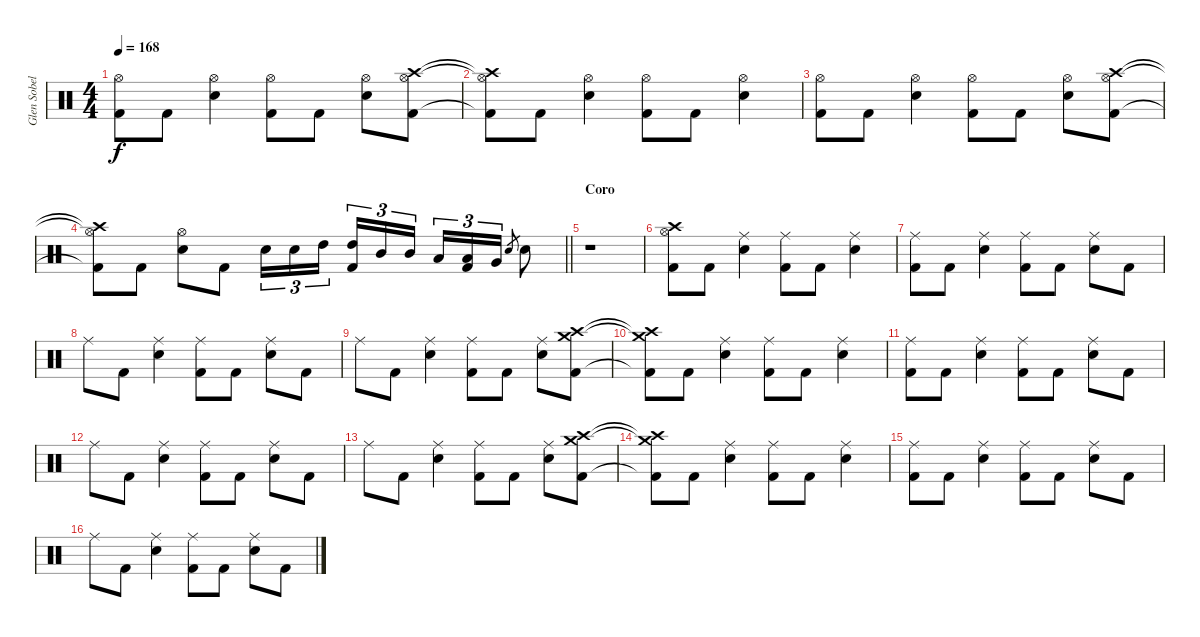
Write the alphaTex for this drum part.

\track ("Glen Sobel" "Glen Sobel") {instrument percussion}
\staff {score}
\articulation defaults
\ts (4 4)
\tempo 168
\clef neutral
\ks c
("Hi-Hat (open)" "Kick (hit) 2").8{dy f} "Kick (hit) 2".8 ("Hi-Hat (open)" "Snare (hit) 2").4 ("Hi-Hat (open)" "Kick (hit) 2").8 "Kick (hit) 2".8 ("Hi-Hat (open)" "Snare (hit) 2").8 ("Hi-Hat (open)" "Crash high (hit)" "Kick (hit) 2").8 |
("Hi-Hat (open)"{t} "Crash high (hit)"{t} "Kick (hit) 2"{t}).8 "Kick (hit) 2".8 ("Hi-Hat (open)" "Snare (hit) 2").4 ("Hi-Hat (open)" "Kick (hit) 2").8 "Kick (hit) 2".8 ("Hi-Hat (open)" "Snare (hit) 2").4 |
("Hi-Hat (open)" "Kick (hit) 2").8 "Kick (hit) 2".8 ("Hi-Hat (open)" "Snare (hit) 2").4 ("Hi-Hat (open)" "Kick (hit) 2").8 "Kick (hit) 2".8 ("Hi-Hat (open)" "Snare (hit) 2").8 ("Hi-Hat (open)" "Crash high (hit)" "Kick (hit) 2").8 |
\barLineRight lightlight
("Hi-Hat (open)"{t} "Crash high (hit)"{t} "Kick (hit) 2"{t}).8 "Kick (hit) 2".8 ("Hi-Hat (open)" "Snare (hit) 2").8 "Kick (hit) 2".8 "Snare (hit) 2".16{tu (3 2)} "Snare (hit) 2".16{tu (3 2)} "High Tom (hit)".16{tu (3 2) beam splitsecondary} ("High Tom (hit)" "Kick (hit) 2").16{tu (3 2)} "Mid Tom (hit)".16{tu (3 2)} "Mid Tom (hit)".16{tu (3 2)} "Low Tom (hit)".16{tu (3 2)} ("Low Tom (hit)" "Kick (hit) 2").16{tu (3 2)} "Very Low Tom (hit)".16{tu (3 2)} "Snare (hit) 2".8{gr} "Snare (hit) 2".8 |
\section ("" "Coro")
r.1 |
("Hi-Hat (open)" "Crash high (hit)" "Kick (hit) 2").8 "Kick (hit) 2".8 ("Ride (middle)" "Snare (hit) 2").4 ("Ride (middle)" "Kick (hit) 2").8 "Kick (hit) 2".8 ("Ride (middle)" "Snare (hit) 2").4 |
("Ride (middle)" "Kick (hit) 2").8 "Kick (hit) 2".8 ("Ride (middle)" "Snare (hit) 2").4 ("Ride (middle)" "Kick (hit) 2").8 "Kick (hit) 2".8 ("Ride (middle)" "Snare (hit) 2").8 "Kick (hit) 2".8 |
"Ride (middle)".8 "Kick (hit) 2".8 ("Ride (middle)" "Snare (hit) 2").4 ("Ride (middle)" "Kick (hit) 2").8 "Kick (hit) 2".8 ("Ride (middle)" "Snare (hit) 2").8 "Kick (hit) 2".8 |
"Ride (middle)".8 "Kick (hit) 2".8 ("Ride (middle)" "Snare (hit) 2").4 ("Ride (middle)" "Kick (hit) 2").8 "Kick (hit) 2".8 ("Ride (middle)" "Snare (hit) 2").8 ("Crash medium (hit)" "Crash high (hit)" "Kick (hit) 2").8 |
("Crash medium (hit)"{t} "Crash high (hit)"{t} "Kick (hit) 2"{t}).8 "Kick (hit) 2".8 ("Ride (middle)" "Snare (hit) 2").4 ("Ride (middle)" "Kick (hit) 2").8 "Kick (hit) 2".8 ("Ride (middle)" "Snare (hit) 2").4 |
("Ride (middle)" "Kick (hit) 2").8 "Kick (hit) 2".8 ("Ride (middle)" "Snare (hit) 2").4 ("Ride (middle)" "Kick (hit) 2").8 "Kick (hit) 2".8 ("Ride (middle)" "Snare (hit) 2").8 "Kick (hit) 2".8 |
"Ride (middle)".8 "Kick (hit) 2".8 ("Ride (middle)" "Snare (hit) 2").4 ("Ride (middle)" "Kick (hit) 2").8 "Kick (hit) 2".8 ("Ride (middle)" "Snare (hit) 2").8 "Kick (hit) 2".8 |
"Ride (middle)".8 "Kick (hit) 2".8 ("Ride (middle)" "Snare (hit) 2").4 ("Ride (middle)" "Kick (hit) 2").8 "Kick (hit) 2".8 ("Ride (middle)" "Snare (hit) 2").8 ("Crash medium (hit)" "Crash high (hit)" "Kick (hit) 2").8 |
("Crash medium (hit)"{t} "Crash high (hit)"{t} "Kick (hit) 2"{t}).8 "Kick (hit) 2".8 ("Ride (middle)" "Snare (hit) 2").4 ("Ride (middle)" "Kick (hit) 2").8 "Kick (hit) 2".8 ("Ride (middle)" "Snare (hit) 2").4 |
("Ride (middle)" "Kick (hit) 2").8 "Kick (hit) 2".8 ("Ride (middle)" "Snare (hit) 2").4 ("Ride (middle)" "Kick (hit) 2").8 "Kick (hit) 2".8 ("Ride (middle)" "Snare (hit) 2").8 "Kick (hit) 2".8 |
"Ride (middle)".8 "Kick (hit) 2".8 ("Ride (middle)" "Snare (hit) 2").4 ("Ride (middle)" "Kick (hit) 2").8 "Kick (hit) 2".8 ("Ride (middle)" "Snare (hit) 2").8 "Kick (hit) 2".8
